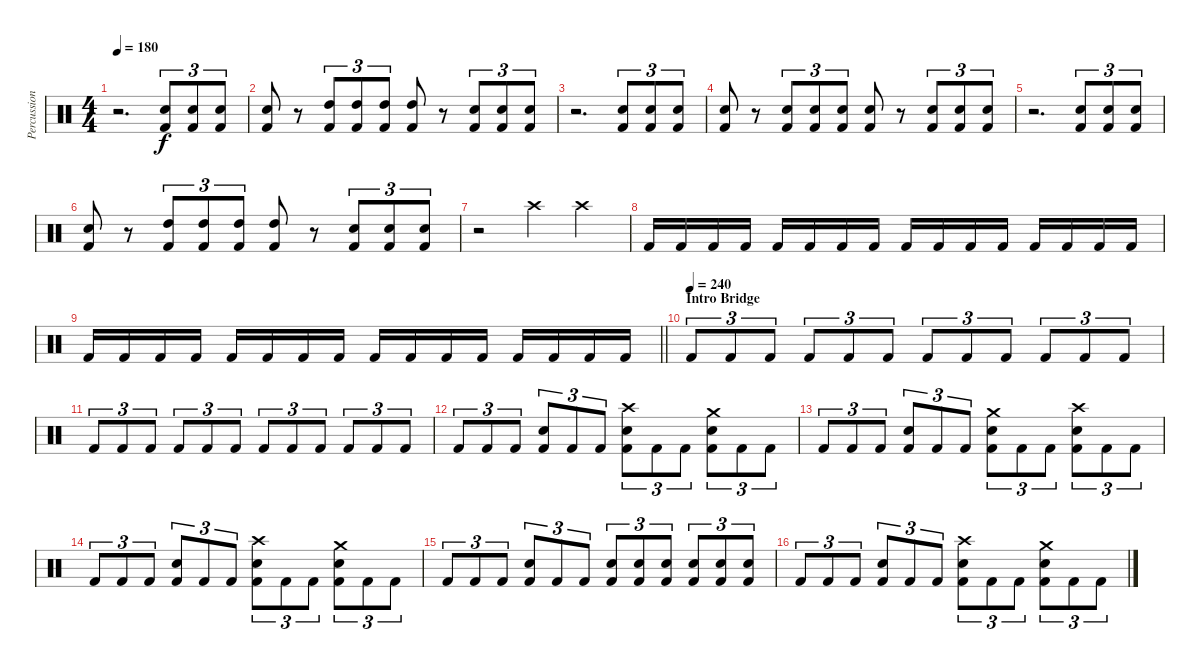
\track ("Percussion" "Percussion") {instrument percussion}
\staff {score}
\articulation defaults
\ts (4 4)
\tempo 180
\clef neutral
\ks c
r.2{d dy f} ("Kick (hit) 2" "Electric Snare (hit)").8{tu (3 2)} ("Kick (hit) 2" "Electric Snare (hit)").8{tu (3 2)} ("Kick (hit) 2" "Electric Snare (hit)").8{tu (3 2)} |
("Kick (hit) 2" "Electric Snare (hit)").8 r.8 ("Kick (hit) 2" "High Tom (hit)").8{tu (3 2)} ("Kick (hit) 2" "High Tom (hit)").8{tu (3 2)} ("Kick (hit) 2" "High Tom (hit)").8{tu (3 2)} ("Kick (hit) 2" "High Tom (hit)").8 r.8 ("Kick (hit) 2" "Electric Snare (hit)").8{tu (3 2)} ("Kick (hit) 2" "Electric Snare (hit)").8{tu (3 2)} ("Kick (hit) 2" "Electric Snare (hit)").8{tu (3 2)} |
r.2{d} ("Kick (hit) 2" "Electric Snare (hit)").8{tu (3 2)} ("Kick (hit) 2" "Electric Snare (hit)").8{tu (3 2)} ("Kick (hit) 2" "Electric Snare (hit)").8{tu (3 2)} |
("Kick (hit) 2" "Electric Snare (hit)").8 r.8 ("Kick (hit) 2" "Electric Snare (hit)").8{tu (3 2)} ("Kick (hit) 2" "Electric Snare (hit)").8{tu (3 2)} ("Kick (hit) 2" "Electric Snare (hit)").8{tu (3 2)} ("Kick (hit) 2" "Electric Snare (hit)").8 r.8 ("Kick (hit) 2" "Electric Snare (hit)").8{tu (3 2)} ("Kick (hit) 2" "Electric Snare (hit)").8{tu (3 2)} ("Kick (hit) 2" "Electric Snare (hit)").8{tu (3 2)} |
r.2{d} ("Kick (hit) 2" "Electric Snare (hit)").8{tu (3 2)} ("Kick (hit) 2" "Electric Snare (hit)").8{tu (3 2)} ("Kick (hit) 2" "Electric Snare (hit)").8{tu (3 2)} |
("Kick (hit) 2" "Electric Snare (hit)").8 r.8 ("Kick (hit) 2" "High Tom (hit)").8{tu (3 2)} ("Kick (hit) 2" "High Tom (hit)").8{tu (3 2)} ("Kick (hit) 2" "High Tom (hit)").8{tu (3 2)} ("Kick (hit) 2" "High Tom (hit)").8 r.8 ("Kick (hit) 2" "Electric Snare (hit)").8{tu (3 2)} ("Kick (hit) 2" "Electric Snare (hit)").8{tu (3 2)} ("Kick (hit) 2" "Electric Snare (hit)").8{tu (3 2)} |
r.2 "Crash high (hit)".4 "Crash high (hit)".4 |
"Kick (hit) 2".16 "Kick (hit) 2".16 "Kick (hit) 2".16 "Kick (hit) 2".16 "Kick (hit) 2".16 "Kick (hit) 2".16 "Kick (hit) 2".16 "Kick (hit) 2".16 "Kick (hit) 2".16 "Kick (hit) 2".16 "Kick (hit) 2".16 "Kick (hit) 2".16 "Kick (hit) 2".16 "Kick (hit) 2".16 "Kick (hit) 2".16 "Kick (hit) 2".16 |
\barLineRight lightlight "Kick (hit) 2".16 "Kick (hit) 2".16 "Kick (hit) 2".16 "Kick (hit) 2".16 "Kick (hit) 2".16 "Kick (hit) 2".16 "Kick (hit) 2".16 "Kick (hit) 2".16 "Kick (hit) 2".16 "Kick (hit) 2".16 "Kick (hit) 2".16 "Kick (hit) 2".16 "Kick (hit) 2".16 "Kick (hit) 2".16 "Kick (hit) 2".16 "Kick (hit) 2".16
|
\section ("" "Intro Bridge")
\tempo (240)
"Kick (hit) 2".8{tu (3 2)} "Kick (hit) 2".8{tu (3 2)} "Kick (hit) 2".8{tu (3 2)} "Kick (hit) 2".8{tu (3 2)} "Kick (hit) 2".8{tu (3 2)} "Kick (hit) 2".8{tu (3 2)} "Kick (hit) 2".8{tu (3 2)} "Kick (hit) 2".8{tu (3 2)} "Kick (hit) 2".8{tu (3 2)} "Kick (hit) 2".8{tu (3 2)} "Kick (hit) 2".8{tu (3 2)} "Kick (hit) 2".8{tu (3 2)} |
"Kick (hit) 2".8{tu (3 2)} "Kick (hit) 2".8{tu (3 2)} "Kick (hit) 2".8{tu (3 2)} "Kick (hit) 2".8{tu (3 2)} "Kick (hit) 2".8{tu (3 2)} "Kick (hit) 2".8{tu (3 2)} "Kick (hit) 2".8{tu (3 2)} "Kick (hit) 2".8{tu (3 2)} "Kick (hit) 2".8{tu (3 2)} "Kick (hit) 2".8{tu (3 2)} "Kick (hit) 2".8{tu (3 2)} "Kick (hit) 2".8{tu (3 2)} |
"Kick (hit) 2".8{tu (3 2)} "Kick (hit) 2".8{tu (3 2)} "Kick (hit) 2".8{tu (3 2)} ("Kick (hit) 2" "Electric Snare (hit)").8{tu (3 2)} "Kick (hit) 2".8{tu (3 2)} "Kick (hit) 2".8{tu (3 2)} ("Kick (hit) 2" "Electric Snare (hit)" "Crash high (hit)").8{tu (3 2)} "Kick (hit) 2".8{tu (3 2)} "Kick (hit) 2".8{tu (3 2)} ("Kick (hit) 2" "Electric Snare (hit)" "Crash medium (hit)").8{tu (3 2)} "Kick (hit) 2".8{tu (3 2)} "Kick (hit) 2".8{tu (3 2)} |
"Kick (hit) 2".8{tu (3 2)} "Kick (hit) 2".8{tu (3 2)} "Kick (hit) 2".8{tu (3 2)} ("Kick (hit) 2" "Electric Snare (hit)").8{tu (3 2)} "Kick (hit) 2".8{tu (3 2)} "Kick (hit) 2".8{tu (3 2)} ("Kick (hit) 2" "Electric Snare (hit)" "Crash medium (hit)").8{tu (3 2)} "Kick (hit) 2".8{tu (3 2)} "Kick (hit) 2".8{tu (3 2)} ("Kick (hit) 2" "Electric Snare (hit)" "Crash high (hit)").8{tu (3 2)} "Kick (hit) 2".8{tu (3 2)} "Kick (hit) 2".8{tu (3 2)} |
"Kick (hit) 2".8{tu (3 2)} "Kick (hit) 2".8{tu (3 2)} "Kick (hit) 2".8{tu (3 2)} ("Kick (hit) 2" "Electric Snare (hit)").8{tu (3 2)} "Kick (hit) 2".8{tu (3 2)} "Kick (hit) 2".8{tu (3 2)} ("Kick (hit) 2" "Electric Snare (hit)" "Crash high (hit)").8{tu (3 2)} "Kick (hit) 2".8{tu (3 2)} "Kick (hit) 2".8{tu (3 2)} ("Kick (hit) 2" "Electric Snare (hit)" "Crash medium (hit)").8{tu (3 2)} "Kick (hit) 2".8{tu (3 2)} "Kick (hit) 2".8{tu (3 2)} |
"Kick (hit) 2".8{tu (3 2)} "Kick (hit) 2".8{tu (3 2)} "Kick (hit) 2".8{tu (3 2)} ("Kick (hit) 2" "Electric Snare (hit)").8{tu (3 2)} "Kick (hit) 2".8{tu (3 2)} "Kick (hit) 2".8{tu (3 2)} ("Kick (hit) 2" "Electric Snare (hit)").8{tu (3 2)} ("Kick (hit) 2" "Electric Snare (hit)").8{tu (3 2)} ("Kick (hit) 2" "Electric Snare (hit)").8{tu (3 2)} ("Kick (hit) 2" "Electric Snare (hit)").8{tu (3 2)} ("Kick (hit) 2" "Electric Snare (hit)").8{tu (3 2)} ("Kick (hit) 2" "Electric Snare (hit)").8{tu (3 2)} |
"Kick (hit) 2".8{tu (3 2)} "Kick (hit) 2".8{tu (3 2)} "Kick (hit) 2".8{tu (3 2)} ("Kick (hit) 2" "Electric Snare (hit)").8{tu (3 2)} "Kick (hit) 2".8{tu (3 2)} "Kick (hit) 2".8{tu (3 2)} ("Kick (hit) 2" "Electric Snare (hit)" "Crash high (hit)").8{tu (3 2)} "Kick (hit) 2".8{tu (3 2)} "Kick (hit) 2".8{tu (3 2)} ("Kick (hit) 2" "Electric Snare (hit)" "Crash medium (hit)").8{tu (3 2)} "Kick (hit) 2".8{tu (3 2)} "Kick (hit) 2".8{tu (3 2)}
